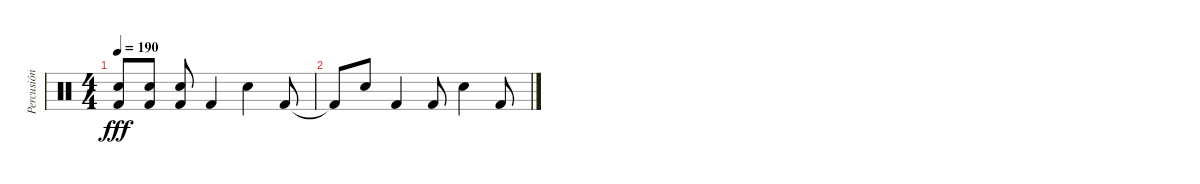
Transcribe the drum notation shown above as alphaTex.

\track ("Percusión" "Percusión") {instrument percussion}
\staff {score}
\articulation defaults
\ts (4 4)
\tempo 190
\clef neutral
\ks c
("Snare (hit) 2" "Kick (hit) 2").8{dy fff} ("Snare (hit) 2" "Kick (hit) 2").8 ("Snare (hit) 2" "Kick (hit) 2").8 "Kick (hit) 2".4 "Snare (hit) 2".4 "Kick (hit) 2".8 |
"Kick (hit) 2"{t}.8 "Snare (hit) 2".8 "Kick (hit) 2".4 "Kick (hit) 2".8 "Snare (hit) 2".4 "Kick (hit) 2".8
